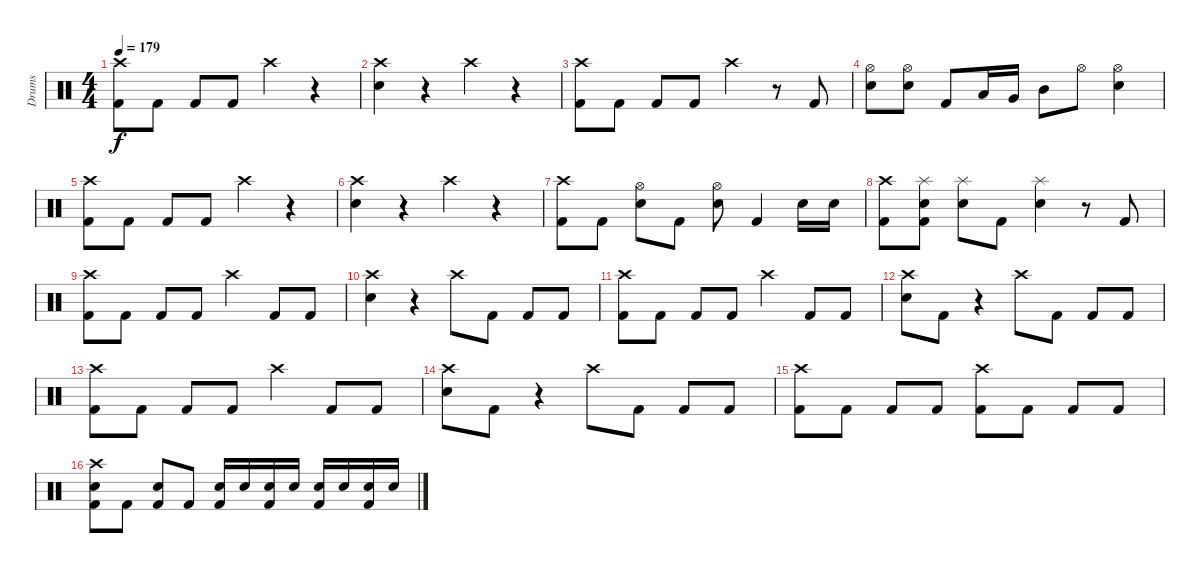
\track ("Drums" "Drums") {instrument percussion}
\staff {score}
\articulation defaults
\ts (4 4)
\tempo 179
\clef neutral
\ks c
("Crash high (hit)" "Kick (hit) 2").8{dy f} "Kick (hit) 2".8 "Kick (hit) 2".8 "Kick (hit) 2".8 "Crash high (hit)".4 r.4 |
("Crash high (hit)" "Snare (hit) 2").4 r.4 "Crash high (hit)".4 r.4 |
("Crash high (hit)" "Kick (hit) 2").8 "Kick (hit) 2".8 "Kick (hit) 2".8 "Kick (hit) 2".8 "Crash high (hit)".4 r.8 "Kick (hit) 2".8 |
("Hi-Hat (open)" "Snare (hit) 2").8 ("Hi-Hat (open)" "Snare (hit) 2").8 "Kick (hit) 2".8 "Low Floor Tom (hit)".16 "Very Low Tom (hit)".16 "Mid Tom (hit)".8 "Hi-Hat (open)".8 ("Hi-Hat (open)" "Snare (hit) 2").4 |
("Crash high (hit)" "Kick (hit) 2").8 "Kick (hit) 2".8 "Kick (hit) 2".8 "Kick (hit) 2".8 "Crash high (hit)".4 r.4 |
("Crash high (hit)" "Snare (hit) 2").4 r.4 "Crash high (hit)".4 r.4 |
("Crash high (hit)" "Kick (hit) 2").8 "Kick (hit) 2".8 ("Hi-Hat (open)" "Snare (hit) 2").8 "Kick (hit) 2".8 ("Hi-Hat (open)" "Snare (hit) 2").8 "Kick (hit) 2".4 "Snare (hit) 2".16 "Snare (hit) 2".16 |
("Crash high (hit)" "Kick (hit) 2").8 ("Splash (hit)" "Snare (hit) 2" "Kick (hit) 2").8 ("Splash (hit)" "Snare (hit) 2").8 "Kick (hit) 2".8 ("Splash (hit)" "Snare (hit) 2").4 r.8 "Kick (hit) 2".8 |
("Crash high (hit)" "Kick (hit) 2").8 "Kick (hit) 2".8 "Kick (hit) 2".8 "Kick (hit) 2".8 "Crash high (hit)".4 "Kick (hit) 2".8 "Kick (hit) 2".8 |
("Crash high (hit)" "Snare (hit) 2").4 r.4 "Crash high (hit)".8 "Kick (hit) 2".8 "Kick (hit) 2".8 "Kick (hit) 2".8 |
("Crash high (hit)" "Kick (hit) 2").8 "Kick (hit) 2".8 "Kick (hit) 2".8 "Kick (hit) 2".8 "Crash high (hit)".4 "Kick (hit) 2".8 "Kick (hit) 2".8 |
("Crash high (hit)" "Snare (hit) 2").8 "Kick (hit) 2".8 r.4 "Crash high (hit)".8 "Kick (hit) 2".8 "Kick (hit) 2".8 "Kick (hit) 2".8 |
("Crash high (hit)" "Kick (hit) 2").8 "Kick (hit) 2".8 "Kick (hit) 2".8 "Kick (hit) 2".8 "Crash high (hit)".4 "Kick (hit) 2".8 "Kick (hit) 2".8 |
("Crash high (hit)" "Snare (hit) 2").8 "Kick (hit) 2".8 r.4 "Crash high (hit)".8 "Kick (hit) 2".8 "Kick (hit) 2".8 "Kick (hit) 2".8 |
("Crash high (hit)" "Kick (hit) 2").8 "Kick (hit) 2".8 "Kick (hit) 2".8 "Kick (hit) 2".8 ("Crash high (hit)" "Kick (hit) 2").8 "Kick (hit) 2".8 "Kick (hit) 2".8 "Kick (hit) 2".8 |
("Crash high (hit)" "Snare (hit) 2" "Kick (hit) 2").8 "Kick (hit) 2".8 ("Snare (hit) 2" "Kick (hit) 2").8 "Kick (hit) 2".8 ("Snare (hit) 2" "Kick (hit) 2").16 "Snare (hit) 2".16 ("Snare (hit) 2" "Kick (hit) 2").16 "Snare (hit) 2".16 ("Snare (hit) 2" "Kick (hit) 2").16 "Snare (hit) 2".16 ("Snare (hit) 2" "Kick (hit) 2").16 "Snare (hit) 2".16
